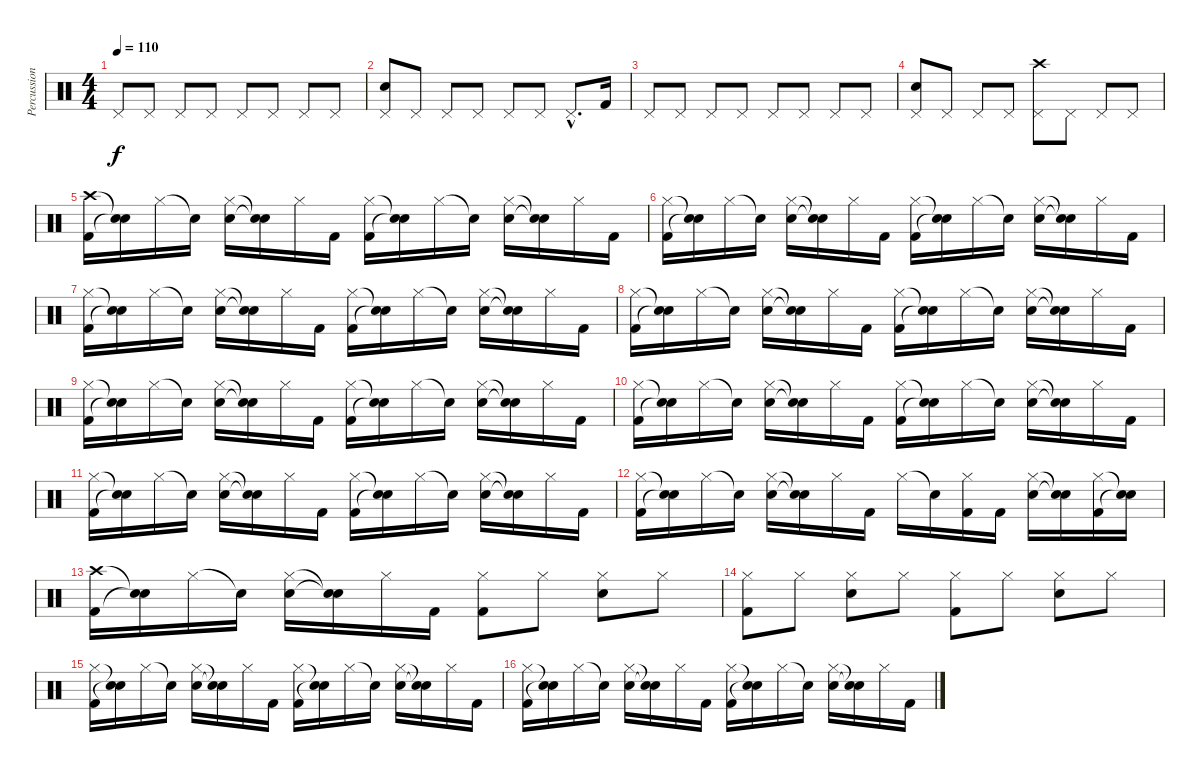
\track ("Percussion" "Percussion") {instrument percussion}
\staff {score}
\articulation defaults
\ts (4 4)
\tempo 110
\clef neutral
\ks c "Pedal Hi-Hat (hit)".8{dy f} "Pedal Hi-Hat (hit)".8 "Pedal Hi-Hat (hit)".8 "Pedal Hi-Hat (hit)".8 "Pedal Hi-Hat (hit)".8 "Pedal Hi-Hat (hit)".8 "Pedal Hi-Hat (hit)".8 "Pedal Hi-Hat (hit)".8
|
("Pedal Hi-Hat (hit)" "Snare (hit) 2").8 "Pedal Hi-Hat (hit)".8 "Pedal Hi-Hat (hit)".8 "Pedal Hi-Hat (hit)".8 "Pedal Hi-Hat (hit)".8 "Pedal Hi-Hat (hit)".8 "Pedal Hi-Hat (hit)"{hac}.8{d} "Kick (hit) 2".16 |
"Pedal Hi-Hat (hit)".8 "Pedal Hi-Hat (hit)".8 "Pedal Hi-Hat (hit)".8 "Pedal Hi-Hat (hit)".8 "Pedal Hi-Hat (hit)".8 "Pedal Hi-Hat (hit)".8 "Pedal Hi-Hat (hit)".8 "Pedal Hi-Hat (hit)".8 |
("Pedal Hi-Hat (hit)" "Snare (hit) 2").8 "Pedal Hi-Hat (hit)".8 "Pedal Hi-Hat (hit)".8 "Pedal Hi-Hat (hit)".8 ("Crash high (hit)" "Pedal Hi-Hat (hit)").8 "Pedal Hi-Hat (hit)".8 "Pedal Hi-Hat (hit)".8 "Pedal Hi-Hat (hit)".8 |
("Crash high (hit)" "Kick (hit) 2").16 ("Snare (hit)"{t} "Snare (hit)"{t}).16 "Hi-Hat (closed)".16 "Snare (hit)"{t}.16 ("Hi-Hat (closed)" "Snare (hit) 2").16 ("Snare (hit)"{t} "Snare (hit)"{t}).16 "Hi-Hat (closed)".16 "Kick (hit) 2".16 ("Hi-Hat (closed)" "Kick (hit) 2").16 ("Snare (hit)"{t} "Snare (hit)"{t}).16 "Hi-Hat (closed)".16 "Snare (hit)"{t}.16 ("Hi-Hat (closed)" "Snare (hit) 2").16 ("Snare (hit)"{t} "Snare (hit)"{t}).16 "Hi-Hat (closed)".16 "Kick (hit) 2".16 |
("Hi-Hat (closed)" "Kick (hit) 2").16 ("Snare (hit)"{t} "Snare (hit)"{t}).16 "Hi-Hat (closed)".16 "Snare (hit)"{t}.16 ("Hi-Hat (closed)" "Snare (hit) 2").16 ("Snare (hit)"{t} "Snare (hit)"{t}).16 "Hi-Hat (closed)".16 "Kick (hit) 2".16 ("Hi-Hat (closed)" "Kick (hit) 2").16 ("Snare (hit)"{t} "Snare (hit)"{t}).16 "Hi-Hat (closed)".16 "Snare (hit)"{t}.16 ("Hi-Hat (closed)" "Snare (hit) 2").16 ("Snare (hit)"{t} "Snare (hit)"{t}).16 "Hi-Hat (closed)".16 "Kick (hit) 2".16 |
("Hi-Hat (closed)" "Kick (hit) 2").16 ("Snare (hit)"{t} "Snare (hit)"{t}).16 "Hi-Hat (closed)".16 "Snare (hit)"{t}.16 ("Hi-Hat (closed)" "Snare (hit) 2").16 ("Snare (hit)"{t} "Snare (hit)"{t}).16 "Hi-Hat (closed)".16 "Kick (hit) 2".16 ("Hi-Hat (closed)" "Kick (hit) 2").16 ("Snare (hit)"{t} "Snare (hit)"{t}).16 "Hi-Hat (closed)".16 "Snare (hit)"{t}.16 ("Hi-Hat (closed)" "Snare (hit) 2").16 ("Snare (hit)"{t} "Snare (hit)"{t}).16 "Hi-Hat (closed)".16 "Kick (hit) 2".16 |
("Hi-Hat (closed)" "Kick (hit) 2").16 ("Snare (hit)"{t} "Snare (hit)"{t}).16 "Hi-Hat (closed)".16 "Snare (hit)"{t}.16 ("Hi-Hat (closed)" "Snare (hit) 2").16 ("Snare (hit)"{t} "Snare (hit)"{t}).16 "Hi-Hat (closed)".16 "Kick (hit) 2".16 ("Hi-Hat (closed)" "Kick (hit) 2").16 ("Snare (hit)"{t} "Snare (hit)"{t}).16 "Hi-Hat (closed)".16 "Snare (hit)"{t}.16 ("Hi-Hat (closed)" "Snare (hit) 2").16 ("Snare (hit)"{t} "Snare (hit)"{t}).16 "Hi-Hat (closed)".16 "Kick (hit) 2".16 |
("Hi-Hat (closed)" "Kick (hit) 2").16 ("Snare (hit)"{t} "Snare (hit)"{t}).16 "Hi-Hat (closed)".16 "Snare (hit)"{t}.16 ("Hi-Hat (closed)" "Snare (hit) 2").16 ("Snare (hit)"{t} "Snare (hit)"{t}).16 "Hi-Hat (closed)".16 "Kick (hit) 2".16 ("Hi-Hat (closed)" "Kick (hit) 2").16 ("Snare (hit)"{t} "Snare (hit)"{t}).16 "Hi-Hat (closed)".16 "Snare (hit)"{t}.16 ("Hi-Hat (closed)" "Snare (hit) 2").16 ("Snare (hit)"{t} "Snare (hit)"{t}).16 "Hi-Hat (closed)".16 "Kick (hit) 2".16 |
("Hi-Hat (closed)" "Kick (hit) 2").16 ("Snare (hit)"{t} "Snare (hit)"{t}).16 "Hi-Hat (closed)".16 "Snare (hit)"{t}.16 ("Hi-Hat (closed)" "Snare (hit) 2").16 ("Snare (hit)"{t} "Snare (hit)"{t}).16 "Hi-Hat (closed)".16 "Kick (hit) 2".16 ("Hi-Hat (closed)" "Kick (hit) 2").16 ("Snare (hit)"{t} "Snare (hit)"{t}).16 "Hi-Hat (closed)".16 "Snare (hit)"{t}.16 ("Hi-Hat (closed)" "Snare (hit) 2").16 ("Snare (hit)"{t} "Snare (hit)"{t}).16 "Hi-Hat (closed)".16 "Kick (hit) 2".16 |
("Hi-Hat (closed)" "Kick (hit) 2").16 ("Snare (hit)"{t} "Snare (hit)"{t}).16 "Hi-Hat (closed)".16 "Snare (hit)"{t}.16 ("Hi-Hat (closed)" "Snare (hit) 2").16 ("Snare (hit)"{t} "Snare (hit)"{t}).16 "Hi-Hat (closed)".16 "Kick (hit) 2".16 ("Hi-Hat (closed)" "Kick (hit) 2").16 ("Snare (hit)"{t} "Snare (hit)"{t}).16 "Hi-Hat (closed)".16 "Snare (hit)"{t}.16 ("Hi-Hat (closed)" "Snare (hit) 2").16 ("Snare (hit)"{t} "Snare (hit)"{t}).16 "Hi-Hat (closed)".16 "Kick (hit) 2".16 |
("Hi-Hat (closed)" "Kick (hit) 2").16 ("Snare (hit)"{t} "Snare (hit)"{t}).16 "Hi-Hat (closed)".16 "Snare (hit)"{t}.16 ("Hi-Hat (closed)" "Snare (hit) 2").16 ("Snare (hit)"{t} "Snare (hit)"{t}).16 "Hi-Hat (closed)".16 "Kick (hit) 2".16 "Hi-Hat (closed)".16 "Snare (hit)"{t}.16 ("Hi-Hat (closed)" "Kick (hit) 2").16 "Kick (hit) 2".16 ("Hi-Hat (closed)" "Snare (hit) 2").16 ("Snare (hit)"{t} "Snare (hit)"{t}).16 ("Hi-Hat (closed)" "Kick (hit) 2").16 ("Snare (hit)"{t} "Snare (hit)"{t}).16 |
("Crash high (hit)" "Kick (hit) 2").16 ("Snare (hit)"{t} "Snare (hit)"{t}).16 "Hi-Hat (closed)".16 "Snare (hit)"{t}.16 ("Hi-Hat (closed)" "Snare (hit) 2").16 ("Snare (hit)"{t} "Snare (hit)"{t}).16 "Hi-Hat (closed)".16 "Kick (hit) 2".16 ("Hi-Hat (closed)" "Kick (hit) 2").8 "Hi-Hat (closed)".8 ("Hi-Hat (closed)" "Snare (hit) 2").8 "Hi-Hat (closed)".8 |
("Hi-Hat (closed)" "Kick (hit) 2").8 "Hi-Hat (closed)".8 ("Hi-Hat (closed)" "Snare (hit) 2").8 "Hi-Hat (closed)".8 ("Hi-Hat (closed)" "Kick (hit) 2").8 "Hi-Hat (closed)".8 ("Hi-Hat (closed)" "Snare (hit) 2").8 "Hi-Hat (closed)".8 |
("Hi-Hat (closed)" "Kick (hit) 2").16 ("Snare (hit)"{t} "Snare (hit)"{t}).16 "Hi-Hat (closed)".16 "Snare (hit)"{t}.16 ("Hi-Hat (closed)" "Snare (hit) 2").16 ("Snare (hit)"{t} "Snare (hit)"{t}).16 "Hi-Hat (closed)".16 "Kick (hit) 2".16 ("Hi-Hat (closed)" "Kick (hit) 2").16 ("Snare (hit)"{t} "Snare (hit)"{t}).16 "Hi-Hat (closed)".16 "Snare (hit)"{t}.16 ("Hi-Hat (closed)" "Snare (hit) 2").16 ("Snare (hit)"{t} "Snare (hit)"{t}).16 "Hi-Hat (closed)".16 "Kick (hit) 2".16 |
("Hi-Hat (closed)" "Kick (hit) 2").16 ("Snare (hit)"{t} "Snare (hit)"{t}).16 "Hi-Hat (closed)".16 "Snare (hit)"{t}.16 ("Hi-Hat (closed)" "Snare (hit) 2").16 ("Snare (hit)"{t} "Snare (hit)"{t}).16 "Hi-Hat (closed)".16 "Kick (hit) 2".16 ("Hi-Hat (closed)" "Kick (hit) 2").16 ("Snare (hit)"{t} "Snare (hit)"{t}).16 "Hi-Hat (closed)".16 "Snare (hit)"{t}.16 ("Hi-Hat (closed)" "Snare (hit) 2").16 ("Snare (hit)"{t} "Snare (hit)"{t}).16 "Hi-Hat (closed)".16 "Kick (hit) 2".16
